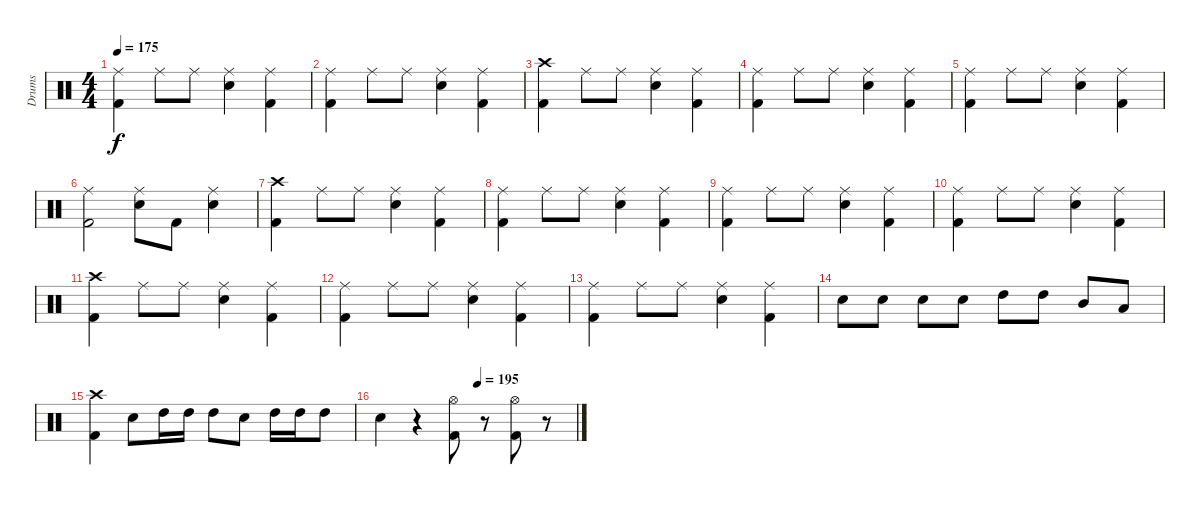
\track ("Drums" "Drums") {instrument percussion}
\staff {score}
\articulation defaults
\ts (4 4)
\tempo 175
\clef neutral
\ks c
("Ride (middle)" "Kick (hit) 2").4{dy f} "Ride (middle)".8 "Ride (middle)".8 ("Ride (middle)" "Snare (hit) 2").4 ("Ride (middle)" "Kick (hit) 2").4 |
("Ride (middle)" "Kick (hit) 2").4 "Ride (middle)".8 "Ride (middle)".8 ("Ride (middle)" "Snare (hit) 2").4 ("Ride (middle)" "Kick (hit) 2").4 |
("Crash high (hit)" "Kick (hit) 2").4 "Ride (middle)".8 "Ride (middle)".8 ("Ride (middle)" "Snare (hit) 2").4 ("Ride (middle)" "Kick (hit) 2").4 |
("Ride (middle)" "Kick (hit) 2").4 "Ride (middle)".8 "Ride (middle)".8 ("Ride (middle)" "Snare (hit) 2").4 ("Ride (middle)" "Kick (hit) 2").4 |
("Ride (middle)" "Kick (hit) 2").4 "Ride (middle)".8 "Ride (middle)".8 ("Ride (middle)" "Snare (hit) 2").4 ("Ride (middle)" "Kick (hit) 2").4 |
("Ride (middle)" "Kick (hit) 2").2 ("Ride (middle)" "Snare (hit) 2").8 "Kick (hit) 2".8 ("Ride (middle)" "Snare (hit) 2").4 |
("Crash high (hit)" "Kick (hit) 2").4 "Ride (middle)".8 "Ride (middle)".8 ("Ride (middle)" "Snare (hit) 2").4 ("Ride (middle)" "Kick (hit) 2").4 |
("Ride (middle)" "Kick (hit) 2").4 "Ride (middle)".8 "Ride (middle)".8 ("Ride (middle)" "Snare (hit) 2").4 ("Ride (middle)" "Kick (hit) 2").4 |
("Ride (middle)" "Kick (hit) 2").4 "Ride (middle)".8 "Ride (middle)".8 ("Ride (middle)" "Snare (hit) 2").4 ("Ride (middle)" "Kick (hit) 2").4 |
("Ride (middle)" "Kick (hit) 2").4 "Ride (middle)".8 "Ride (middle)".8 ("Ride (middle)" "Snare (hit) 2").4 ("Ride (middle)" "Kick (hit) 2").4 |
("Crash high (hit)" "Kick (hit) 2").4 "Ride (middle)".8 "Ride (middle)".8 ("Ride (middle)" "Snare (hit) 2").4 ("Ride (middle)" "Kick (hit) 2").4 |
("Ride (middle)" "Kick (hit) 2").4 "Ride (middle)".8 "Ride (middle)".8 ("Ride (middle)" "Snare (hit) 2").4 ("Ride (middle)" "Kick (hit) 2").4 |
("Ride (middle)" "Kick (hit) 2").4 "Ride (middle)".8 "Ride (middle)".8 ("Ride (middle)" "Snare (hit) 2").4 ("Ride (middle)" "Kick (hit) 2").4 |
"Snare (hit) 2".8 "Snare (hit) 2".8 "Snare (hit) 2".8 "Snare (hit) 2".8 "High Tom (hit)".8 "High Tom (hit)".8 "Mid Tom (hit)".8 "Low Tom (hit)".8 |
("Crash high (hit)"{pm} "Kick (hit) 2").4 "Snare (hit) 2".8 "High Tom (hit)".16 "High Tom (hit)".16 "High Tom (hit)".8 "Snare (hit) 2".8 "High Tom (hit)".16 "High Tom (hit)".16 "High Tom (hit)".8 |
\tempo (195 0.5)
"Snare (hit) 2".4 r.4 ("Hi-Hat (open)"{pm} "Kick (hit) 2").8 r.8 ("Hi-Hat (open)"{pm} "Kick (hit) 2").8 r.8
